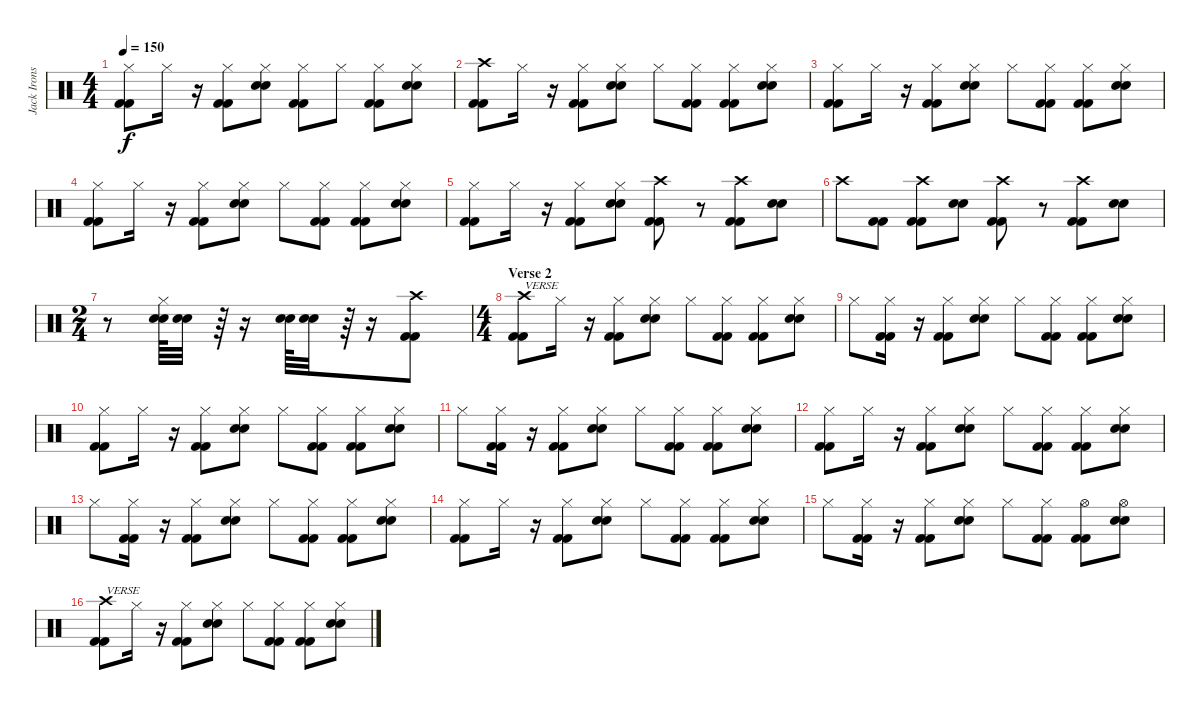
\track ("Jack Irons" "Jack Irons") {instrument percussion}
\staff {score}
\articulation defaults
\ts (4 4)
\tempo 150
\clef neutral
\ks c
("Hi-Hat (closed)" "Kick (hit) 2" "Kick (hit) 2").8{dy f} "Hi-Hat (closed)".16 r.16 ("Hi-Hat (closed)" "Kick (hit) 2" "Kick (hit) 2").8 ("Hi-Hat (closed)" "Electric Snare (hit)" "Electric Snare (hit)").8 ("Hi-Hat (closed)" "Kick (hit) 2" "Kick (hit) 2").8 "Hi-Hat (closed)".8 ("Hi-Hat (closed)" "Kick (hit) 2" "Kick (hit) 2").8 ("Hi-Hat (closed)" "Electric Snare (hit)" "Electric Snare (hit)").8 |
("Crash high (hit)" "Kick (hit) 2" "Kick (hit) 2").8 "Hi-Hat (closed)".16 r.16 ("Hi-Hat (closed)" "Kick (hit) 2" "Kick (hit) 2").8 ("Hi-Hat (closed)" "Electric Snare (hit)" "Electric Snare (hit)").8 "Hi-Hat (closed)".8 ("Hi-Hat (closed)" "Kick (hit) 2" "Kick (hit) 2").8 ("Hi-Hat (closed)" "Kick (hit) 2" "Kick (hit) 2").8 ("Hi-Hat (closed)" "Electric Snare (hit)" "Electric Snare (hit)").8 |
("Hi-Hat (closed)" "Kick (hit) 2" "Kick (hit) 2").8 "Hi-Hat (closed)".16 r.16 ("Hi-Hat (closed)" "Kick (hit) 2" "Kick (hit) 2").8 ("Hi-Hat (closed)" "Electric Snare (hit)" "Electric Snare (hit)").8 "Hi-Hat (closed)".8 ("Hi-Hat (closed)" "Kick (hit) 2" "Kick (hit) 2").8 ("Hi-Hat (closed)" "Kick (hit) 2" "Kick (hit) 2").8 ("Hi-Hat (closed)" "Electric Snare (hit)" "Electric Snare (hit)").8 |
("Hi-Hat (closed)" "Kick (hit) 2" "Kick (hit) 2").8 "Hi-Hat (closed)".16 r.16 ("Hi-Hat (closed)" "Kick (hit) 2" "Kick (hit) 2").8 ("Hi-Hat (closed)" "Electric Snare (hit)" "Electric Snare (hit)").8 "Hi-Hat (closed)".8 ("Hi-Hat (closed)" "Kick (hit) 2" "Kick (hit) 2").8 ("Hi-Hat (closed)" "Kick (hit) 2" "Kick (hit) 2").8 ("Hi-Hat (closed)" "Electric Snare (hit)" "Electric Snare (hit)").8 |
("Hi-Hat (closed)" "Kick (hit) 2" "Kick (hit) 2").8 "Hi-Hat (closed)".16 r.16 ("Hi-Hat (closed)" "Kick (hit) 2" "Kick (hit) 2").8 ("Hi-Hat (closed)" "Electric Snare (hit)" "Electric Snare (hit)").8 ("Crash high (hit)" "Kick (hit) 2" "Kick (hit) 2").8 r.8 ("Crash high (hit)" "Kick (hit) 2" "Kick (hit) 2").8 ("Electric Snare (hit)" "Electric Snare (hit)").8 |
"Crash high (hit)".8 ("Kick (hit) 2" "Kick (hit) 2").8 ("Crash high (hit)" "Kick (hit) 2" "Kick (hit) 2").8 ("Electric Snare (hit)" "Electric Snare (hit)").8 ("Crash high (hit)" "Kick (hit) 2" "Kick (hit) 2").8 r.8 ("Crash high (hit)" "Kick (hit) 2" "Kick (hit) 2").8 ("Electric Snare (hit)" "Electric Snare (hit)").8 |
\ts (2 4)
r.8 ("Hi-Hat (closed)" "Electric Snare (hit)" "Electric Snare (hit)").64 ("Electric Snare (hit)" "Electric Snare (hit)").32 r.64 r.16 ("Electric Snare (hit)" "Electric Snare (hit)").64 ("Electric Snare (hit)" "Electric Snare (hit)").32 r.64 r.16 ("Crash high (hit)" "Kick (hit) 2" "Kick (hit) 2").8 |
\ts (4 4)
\section ("" "Verse 2")
("Crash high (hit)" "Kick (hit) 2" "Kick (hit) 2").8{txt "VERSE"} "Hi-Hat (closed)".16 r.16 ("Hi-Hat (closed)" "Kick (hit) 2" "Kick (hit) 2").8 ("Hi-Hat (closed)" "Electric Snare (hit)" "Electric Snare (hit)").8 "Hi-Hat (closed)".8 ("Hi-Hat (closed)" "Kick (hit) 2" "Kick (hit) 2").8 ("Hi-Hat (closed)" "Kick (hit) 2" "Kick (hit) 2").8 ("Hi-Hat (closed)" "Electric Snare (hit)" "Electric Snare (hit)").8 |
"Hi-Hat (closed)".8 ("Hi-Hat (closed)" "Kick (hit) 2" "Kick (hit) 2").16 r.16 ("Hi-Hat (closed)" "Kick (hit) 2" "Kick (hit) 2").8 ("Hi-Hat (closed)" "Electric Snare (hit)" "Electric Snare (hit)").8 "Hi-Hat (closed)".8 ("Hi-Hat (closed)" "Kick (hit) 2" "Kick (hit) 2").8 ("Hi-Hat (closed)" "Kick (hit) 2" "Kick (hit) 2").8 ("Hi-Hat (closed)" "Electric Snare (hit)" "Electric Snare (hit)").8 |
("Hi-Hat (closed)" "Kick (hit) 2" "Kick (hit) 2").8 "Hi-Hat (closed)".16 r.16 ("Hi-Hat (closed)" "Kick (hit) 2" "Kick (hit) 2").8 ("Hi-Hat (closed)" "Electric Snare (hit)" "Electric Snare (hit)").8 "Hi-Hat (closed)".8 ("Hi-Hat (closed)" "Kick (hit) 2" "Kick (hit) 2").8 ("Hi-Hat (closed)" "Kick (hit) 2" "Kick (hit) 2").8 ("Hi-Hat (closed)" "Electric Snare (hit)" "Electric Snare (hit)").8 |
"Hi-Hat (closed)".8 ("Hi-Hat (closed)" "Kick (hit) 2" "Kick (hit) 2").16 r.16 ("Hi-Hat (closed)" "Kick (hit) 2" "Kick (hit) 2").8 ("Hi-Hat (closed)" "Electric Snare (hit)" "Electric Snare (hit)").8 "Hi-Hat (closed)".8 ("Hi-Hat (closed)" "Kick (hit) 2" "Kick (hit) 2").8 ("Hi-Hat (closed)" "Kick (hit) 2" "Kick (hit) 2").8 ("Hi-Hat (closed)" "Electric Snare (hit)" "Electric Snare (hit)").8 |
("Hi-Hat (closed)" "Kick (hit) 2" "Kick (hit) 2").8 "Hi-Hat (closed)".16 r.16 ("Hi-Hat (closed)" "Kick (hit) 2" "Kick (hit) 2").8 ("Hi-Hat (closed)" "Electric Snare (hit)" "Electric Snare (hit)").8 "Hi-Hat (closed)".8 ("Hi-Hat (closed)" "Kick (hit) 2" "Kick (hit) 2").8 ("Hi-Hat (closed)" "Kick (hit) 2" "Kick (hit) 2").8 ("Hi-Hat (closed)" "Electric Snare (hit)" "Electric Snare (hit)").8 |
"Hi-Hat (closed)".8 ("Hi-Hat (closed)" "Kick (hit) 2" "Kick (hit) 2").16 r.16 ("Hi-Hat (closed)" "Kick (hit) 2" "Kick (hit) 2").8 ("Hi-Hat (closed)" "Electric Snare (hit)" "Electric Snare (hit)").8 "Hi-Hat (closed)".8 ("Hi-Hat (closed)" "Kick (hit) 2" "Kick (hit) 2").8 ("Hi-Hat (closed)" "Kick (hit) 2" "Kick (hit) 2").8 ("Hi-Hat (closed)" "Electric Snare (hit)" "Electric Snare (hit)").8 |
("Hi-Hat (closed)" "Kick (hit) 2" "Kick (hit) 2").8 "Hi-Hat (closed)".16 r.16 ("Hi-Hat (closed)" "Kick (hit) 2" "Kick (hit) 2").8 ("Hi-Hat (closed)" "Electric Snare (hit)" "Electric Snare (hit)").8 "Hi-Hat (closed)".8 ("Hi-Hat (closed)" "Kick (hit) 2" "Kick (hit) 2").8 ("Hi-Hat (closed)" "Kick (hit) 2" "Kick (hit) 2").8 ("Hi-Hat (closed)" "Electric Snare (hit)" "Electric Snare (hit)").8 |
"Hi-Hat (closed)".8 ("Hi-Hat (closed)" "Kick (hit) 2" "Kick (hit) 2").16 r.16 ("Hi-Hat (closed)" "Kick (hit) 2" "Kick (hit) 2").8 ("Hi-Hat (closed)" "Electric Snare (hit)" "Electric Snare (hit)").8 "Hi-Hat (closed)".8 ("Hi-Hat (closed)" "Kick (hit) 2" "Kick (hit) 2").8 ("Hi-Hat (open)" "Kick (hit) 2" "Kick (hit) 2").8 ("Hi-Hat (open)" "Electric Snare (hit)" "Electric Snare (hit)").8 |
("Crash high (hit)" "Kick (hit) 2" "Kick (hit) 2").8{txt "VERSE"} "Hi-Hat (closed)".16 r.16 ("Hi-Hat (closed)" "Kick (hit) 2" "Kick (hit) 2").8 ("Hi-Hat (closed)" "Electric Snare (hit)" "Electric Snare (hit)").8 "Hi-Hat (closed)".8 ("Hi-Hat (closed)" "Kick (hit) 2" "Kick (hit) 2").8 ("Hi-Hat (closed)" "Kick (hit) 2" "Kick (hit) 2").8 ("Hi-Hat (closed)" "Electric Snare (hit)" "Electric Snare (hit)").8
